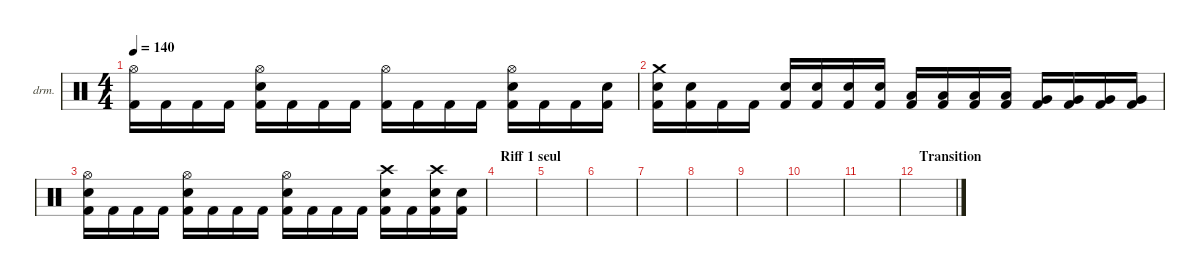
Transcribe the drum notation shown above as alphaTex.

\defaultSystemsLayout 4
\hideDynamics
\bracketExtendMode nobrackets
\firstSystemTrackNameOrientation horizontal
\otherSystemsTrackNameOrientation horizontal
\track ("Drumkit" "drm.") {instrument percussion}
\staff {score}
\articulation defaults
\ts (4 4)
\tempo 140
\clef neutral
\ks c
("Hi-Hat (open)" "Kick (hit) 2").16{dy ff} "Kick (hit) 2".16 "Kick (hit) 2".16 "Kick (hit) 2".16 ("Hi-Hat (open)" "Snare (hit) 2" "Kick (hit) 2").16 "Kick (hit) 2".16 "Kick (hit) 2".16 "Kick (hit) 2".16 ("Hi-Hat (open)" "Kick (hit) 2").16 "Kick (hit) 2".16 "Kick (hit) 2".16 "Kick (hit) 2".16 ("Hi-Hat (open)" "Snare (hit) 2" "Kick (hit) 2").16 "Kick (hit) 2".16 "Kick (hit) 2".16 ("Snare (hit) 2" "Kick (hit) 2").16 |
("Crash medium (hit)" "Snare (hit) 2" "Kick (hit) 2").16{dy mf} ("Snare (hit) 2" "Kick (hit) 2").16 "Kick (hit) 2".16 "Kick (hit) 2".16 ("Snare (hit) 2" "Kick (hit) 2").16 ("Snare (hit) 2" "Kick (hit) 2").16 ("Snare (hit) 2" "Kick (hit) 2").16 ("Snare (hit) 2" "Kick (hit) 2").16 ("Low Tom (hit)" "Kick (hit) 2").16 ("Low Tom (hit)" "Kick (hit) 2").16 ("Low Tom (hit)" "Kick (hit) 2").16 ("Low Tom (hit)" "Kick (hit) 2").16 ("Very Low Tom (hit)" "Kick (hit) 2").16 ("Very Low Tom (hit)" "Kick (hit) 2").16 ("Very Low Tom (hit)" "Kick (hit) 2").16 ("Very Low Tom (hit)" "Kick (hit) 2").16 |
("Hi-Hat (open)" "Snare (hit) 2" "Kick (hit) 2").16 "Kick (hit) 2".16 "Kick (hit) 2".16 "Kick (hit) 2".16 ("Hi-Hat (open)" "Snare (hit) 2" "Kick (hit) 2").16 "Kick (hit) 2".16 "Kick (hit) 2".16 "Kick (hit) 2".16 ("Hi-Hat (open)" "Snare (hit) 2" "Kick (hit) 2").16 "Kick (hit) 2".16 "Kick (hit) 2".16 "Kick (hit) 2".16 ("Crash high (hit)" "Snare (hit) 2" "Kick (hit) 2").16 "Kick (hit) 2".16 ("Crash high (hit)" "Snare (hit) 2" "Kick (hit) 2").16 ("Snare (hit) 2" "Kick (hit) 2").16 |
\section ("" "Riff 1 seul")
|
|
|
|
|
|
|
|
\section ("" "Transition")
